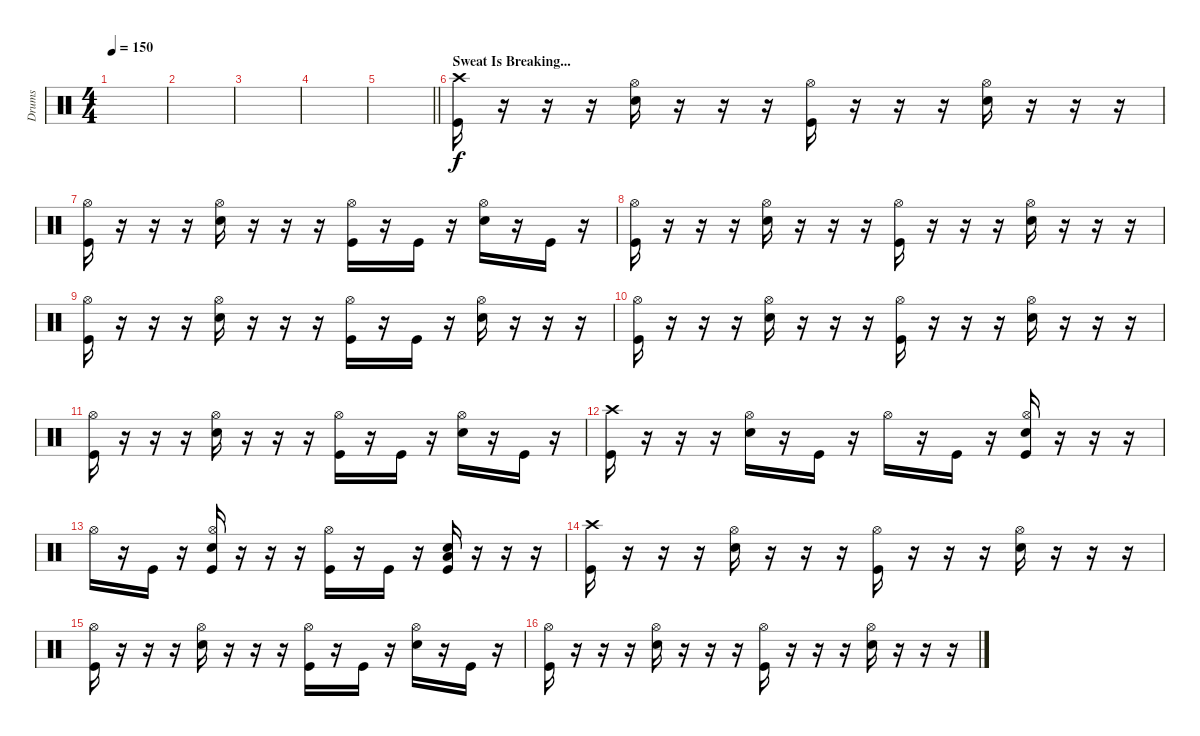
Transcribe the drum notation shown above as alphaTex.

\track ("Drums" "Drums") {instrument percussion}
\staff {score}
\articulation defaults
\ts (4 4)
\tempo 150
\clef neutral
\ks c
|
|
|
|
\barLineRight lightlight
|
\section ("" "Sweat Is Breaking...")
("Crash high (hit)" "Kick (hit)").16{dy f} r.16 r.16 r.16 ("Hi-Hat (open)" "Snare (hit) 2").16 r.16 r.16 r.16 ("Hi-Hat (open)" "Kick (hit)").16 r.16 r.16 r.16 ("Hi-Hat (open)" "Snare (hit) 2").16 r.16 r.16 r.16 |
("Hi-Hat (open)" "Kick (hit)").16 r.16 r.16 r.16 ("Hi-Hat (open)" "Snare (hit) 2").16 r.16 r.16 r.16 ("Hi-Hat (open)" "Kick (hit)").16 r.16 "Kick (hit)".16 r.16 ("Hi-Hat (open)" "Snare (hit) 2").16 r.16 "Kick (hit)".16 r.16 |
("Hi-Hat (open)" "Kick (hit)").16 r.16 r.16 r.16 ("Hi-Hat (open)" "Snare (hit) 2").16 r.16 r.16 r.16 ("Hi-Hat (open)" "Kick (hit)").16 r.16 r.16 r.16 ("Hi-Hat (open)" "Snare (hit) 2").16 r.16 r.16 r.16 |
("Hi-Hat (open)" "Kick (hit)").16 r.16 r.16 r.16 ("Hi-Hat (open)" "Snare (hit) 2").16 r.16 r.16 r.16 ("Hi-Hat (open)" "Kick (hit)").16 r.16 "Kick (hit)".16 r.16 ("Hi-Hat (open)" "Snare (hit) 2").16 r.16 r.16 r.16 |
("Hi-Hat (open)" "Kick (hit)").16 r.16 r.16 r.16 ("Hi-Hat (open)" "Snare (hit) 2").16 r.16 r.16 r.16 ("Hi-Hat (open)" "Kick (hit)").16 r.16 r.16 r.16 ("Hi-Hat (open)" "Snare (hit) 2").16 r.16 r.16 r.16 |
("Hi-Hat (open)" "Kick (hit)").16 r.16 r.16 r.16 ("Hi-Hat (open)" "Snare (hit) 2").16 r.16 r.16 r.16 ("Hi-Hat (open)" "Kick (hit)").16 r.16 "Kick (hit)".16 r.16 ("Hi-Hat (open)" "Snare (hit) 2").16 r.16 "Kick (hit)".16 r.16 |
("Crash high (hit)" "Kick (hit)").16 r.16 r.16 r.16 ("Hi-Hat (open)" "Snare (hit) 2").16 r.16 "Kick (hit)".16 r.16 "Hi-Hat (open)".16 r.16 "Kick (hit)".16 r.16 ("Hi-Hat (open)" "Snare (hit) 2" "Kick (hit)").16 r.16 r.16 r.16 |
"Hi-Hat (open)".16 r.16 "Kick (hit)".16 r.16 ("Hi-Hat (open)" "Snare (hit) 2" "Kick (hit)").16 r.16 r.16 r.16 ("Hi-Hat (open)" "Kick (hit)").16 r.16 "Kick (hit)".16 r.16 ("Low Floor Tom (hit)" "Snare (hit) 2" "Kick (hit)").16 r.16 r.16 r.16 |
("Crash high (hit)" "Kick (hit)").16 r.16 r.16 r.16 ("Hi-Hat (open)" "Snare (hit) 2").16 r.16 r.16 r.16 ("Hi-Hat (open)" "Kick (hit)").16 r.16 r.16 r.16 ("Hi-Hat (open)" "Snare (hit) 2").16 r.16 r.16 r.16 |
("Hi-Hat (open)" "Kick (hit)").16 r.16 r.16 r.16 ("Hi-Hat (open)" "Snare (hit) 2").16 r.16 r.16 r.16 ("Hi-Hat (open)" "Kick (hit)").16 r.16 "Kick (hit)".16 r.16 ("Hi-Hat (open)" "Snare (hit) 2").16 r.16 "Kick (hit)".16 r.16 |
("Hi-Hat (open)" "Kick (hit)").16 r.16 r.16 r.16 ("Hi-Hat (open)" "Snare (hit) 2").16 r.16 r.16 r.16 ("Hi-Hat (open)" "Kick (hit)").16 r.16 r.16 r.16 ("Hi-Hat (open)" "Snare (hit) 2").16 r.16 r.16 r.16
